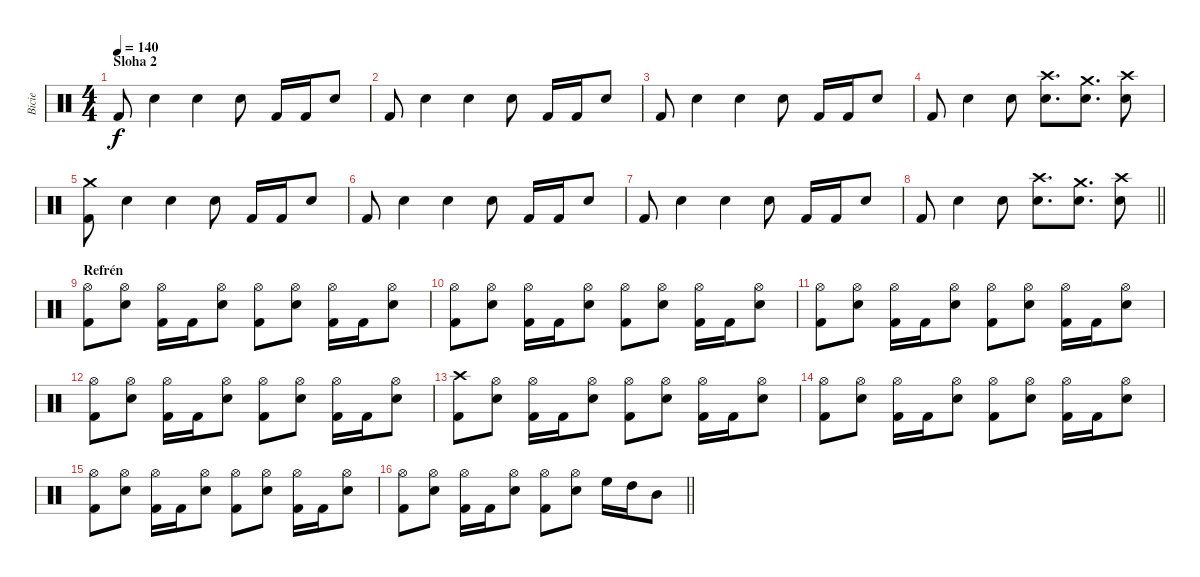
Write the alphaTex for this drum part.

\track ("Bicie" "Bicie") {instrument percussion}
\staff {score}
\articulation defaults
\ts (4 4)
\section ("" "Sloha 2")
\tempo 140
\clef neutral
\ks c "Kick (hit) 2".8{dy f} "Snare (hit) 2".4 "Snare (hit) 2".4 "Snare (hit) 2".8 "Kick (hit) 2".16 "Kick (hit) 2".16 "Snare (hit) 2".8
|
"Kick (hit) 2".8 "Snare (hit) 2".4 "Snare (hit) 2".4 "Snare (hit) 2".8 "Kick (hit) 2".16 "Kick (hit) 2".16 "Snare (hit) 2".8 |
"Kick (hit) 2".8 "Snare (hit) 2".4 "Snare (hit) 2".4 "Snare (hit) 2".8 "Kick (hit) 2".16 "Kick (hit) 2".16 "Snare (hit) 2".8 |
"Kick (hit) 2".8 "Snare (hit) 2".4 "Snare (hit) 2".8 ("Crash high (hit)" "Snare (hit) 2").8{d} ("Crash medium (hit)" "Snare (hit) 2").8{d} ("Crash high (hit)" "Snare (hit) 2").8 |
("Crash medium (hit)" "Kick (hit) 2").8 "Snare (hit) 2".4 "Snare (hit) 2".4 "Snare (hit) 2".8 "Kick (hit) 2".16 "Kick (hit) 2".16 "Snare (hit) 2".8 |
"Kick (hit) 2".8 "Snare (hit) 2".4 "Snare (hit) 2".4 "Snare (hit) 2".8 "Kick (hit) 2".16 "Kick (hit) 2".16 "Snare (hit) 2".8 |
"Kick (hit) 2".8 "Snare (hit) 2".4 "Snare (hit) 2".4 "Snare (hit) 2".8 "Kick (hit) 2".16 "Kick (hit) 2".16 "Snare (hit) 2".8 |
\barLineRight lightlight "Kick (hit) 2".8 "Snare (hit) 2".4 "Snare (hit) 2".8
("Crash high (hit)" "Snare (hit) 2").8{d} ("Crash medium (hit)" "Snare (hit) 2").8{d} ("Crash high (hit)" "Snare (hit) 2").8 |
\section ("" "Refrén")
("Hi-Hat (open)" "Kick (hit) 2").8 ("Hi-Hat (open)" "Snare (hit) 2").8 ("Hi-Hat (open)" "Kick (hit) 2").16 "Kick (hit) 2".16 ("Hi-Hat (open)" "Snare (hit) 2").8 ("Hi-Hat (open)" "Kick (hit) 2").8 ("Hi-Hat (open)" "Snare (hit) 2").8 ("Hi-Hat (open)" "Kick (hit) 2").16 "Kick (hit) 2".16 ("Hi-Hat (open)" "Snare (hit) 2").8 |
("Hi-Hat (open)" "Kick (hit) 2").8 ("Hi-Hat (open)" "Snare (hit) 2").8 ("Hi-Hat (open)" "Kick (hit) 2").16 "Kick (hit) 2".16 ("Hi-Hat (open)" "Snare (hit) 2").8 ("Hi-Hat (open)" "Kick (hit) 2").8 ("Hi-Hat (open)" "Snare (hit) 2").8 ("Hi-Hat (open)" "Kick (hit) 2").16 "Kick (hit) 2".16 ("Hi-Hat (open)" "Snare (hit) 2").8 |
("Hi-Hat (open)" "Kick (hit) 2").8 ("Hi-Hat (open)" "Snare (hit) 2").8 ("Hi-Hat (open)" "Kick (hit) 2").16 "Kick (hit) 2".16 ("Hi-Hat (open)" "Snare (hit) 2").8 ("Hi-Hat (open)" "Kick (hit) 2").8 ("Hi-Hat (open)" "Snare (hit) 2").8 ("Hi-Hat (open)" "Kick (hit) 2").16 "Kick (hit) 2".16 ("Hi-Hat (open)" "Snare (hit) 2").8 |
("Hi-Hat (open)" "Kick (hit) 2").8 ("Hi-Hat (open)" "Snare (hit) 2").8 ("Hi-Hat (open)" "Kick (hit) 2").16 "Kick (hit) 2".16 ("Hi-Hat (open)" "Snare (hit) 2").8 ("Hi-Hat (open)" "Kick (hit) 2").8 ("Hi-Hat (open)" "Snare (hit) 2").8 ("Hi-Hat (open)" "Kick (hit) 2").16 "Kick (hit) 2".16 ("Hi-Hat (open)" "Snare (hit) 2").8 |
("Crash high (hit)" "Kick (hit) 2").8 ("Hi-Hat (open)" "Snare (hit) 2").8 ("Hi-Hat (open)" "Kick (hit) 2").16 "Kick (hit) 2".16 ("Hi-Hat (open)" "Snare (hit) 2").8 ("Hi-Hat (open)" "Kick (hit) 2").8 ("Hi-Hat (open)" "Snare (hit) 2").8 ("Hi-Hat (open)" "Kick (hit) 2").16 "Kick (hit) 2".16 ("Hi-Hat (open)" "Snare (hit) 2").8 |
("Hi-Hat (open)" "Kick (hit) 2").8 ("Hi-Hat (open)" "Snare (hit) 2").8 ("Hi-Hat (open)" "Kick (hit) 2").16 "Kick (hit) 2".16 ("Hi-Hat (open)" "Snare (hit) 2").8 ("Hi-Hat (open)" "Kick (hit) 2").8 ("Hi-Hat (open)" "Snare (hit) 2").8 ("Hi-Hat (open)" "Kick (hit) 2").16 "Kick (hit) 2".16 ("Hi-Hat (open)" "Snare (hit) 2").8 |
("Hi-Hat (open)" "Kick (hit) 2").8 ("Hi-Hat (open)" "Snare (hit) 2").8 ("Hi-Hat (open)" "Kick (hit) 2").16 "Kick (hit) 2".16 ("Hi-Hat (open)" "Snare (hit) 2").8 ("Hi-Hat (open)" "Kick (hit) 2").8 ("Hi-Hat (open)" "Snare (hit) 2").8 ("Hi-Hat (open)" "Kick (hit) 2").16 "Kick (hit) 2".16 ("Hi-Hat (open)" "Snare (hit) 2").8 |
\barLineRight lightlight
("Hi-Hat (open)" "Kick (hit) 2").8 ("Hi-Hat (open)" "Snare (hit) 2").8 ("Hi-Hat (open)" "Kick (hit) 2").16 "Kick (hit) 2".16 ("Hi-Hat (open)" "Snare (hit) 2").8 ("Hi-Hat (open)" "Kick (hit) 2").8 ("Hi-Hat (open)" "Snare (hit) 2").8 "High Floor Tom (hit)".16 "High Tom (hit)".16 "Mid Tom (hit)".8
